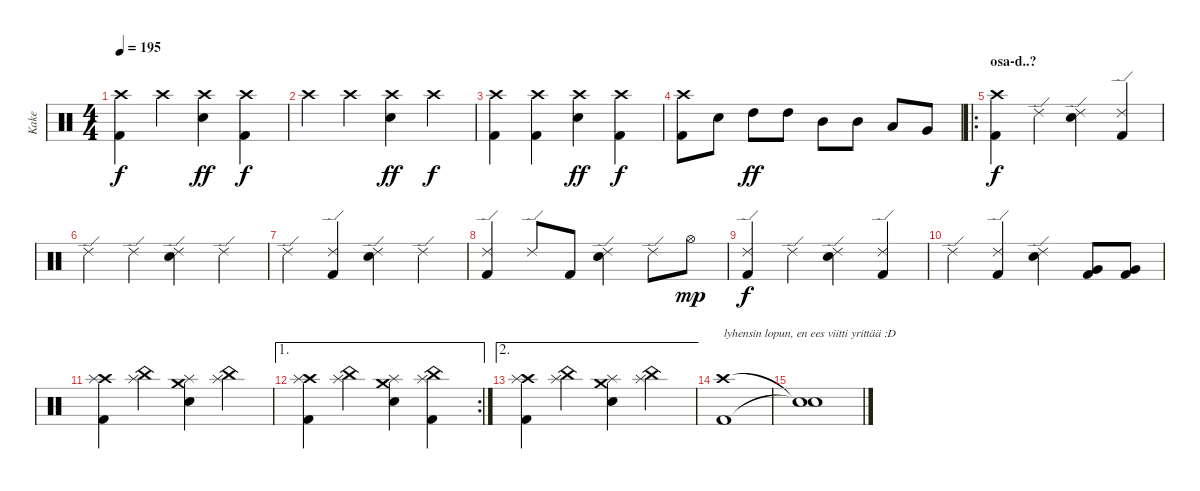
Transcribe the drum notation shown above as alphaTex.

\track ("Kake " "Kake ") {instrument percussion}
\staff {score}
\articulation defaults
\ts (4 4)
\tempo 195
\clef neutral
\ks c
("Crash high (hit)" "Kick (hit) 2").4{dy f} "Crash high (hit)".4 ("Crash high (hit)" "Electric Snare (hit)").4{dy ff} ("Crash high (hit)" "Kick (hit) 2").4{dy f} |
"Crash high (hit)".4 "Crash high (hit)".4 ("Crash high (hit)" "Electric Snare (hit)").4{dy ff} "Crash high (hit)".4{dy f} |
("Crash high (hit)" "Kick (hit) 2").4 ("Crash high (hit)" "Kick (hit) 2").4 ("Crash high (hit)" "Electric Snare (hit)").4{dy ff} ("Crash high (hit)" "Kick (hit) 2").4{dy f} |
("Crash high (hit)" "Kick (hit) 2").8 "Electric Snare (hit)".8 "High Tom (hit)".8{dy ff} "High Tom (hit)".8 "Mid Tom (hit)".8 "Mid Tom (hit)".8 "Low Tom (hit)".8 "Very Low Tom (hit)".8 |
\ro
\section ("" "osa-d..?")
("Crash high (hit)" "Kick (hit) 2").4{dy f} "Ride (edge) 2".4 ("Ride (edge) 2" "Electric Snare (hit)").4 ("Ride (edge) 2" "Kick (hit) 2").4 |
"Ride (edge) 2".4 "Ride (edge) 2".4 ("Ride (edge) 2" "Electric Snare (hit)").4 "Ride (edge) 2".4 |
"Ride (edge) 2".4 ("Ride (edge) 2" "Kick (hit) 2").4 ("Ride (edge) 2" "Electric Snare (hit)").4 "Ride (edge) 2".4 |
("Ride (edge) 2" "Kick (hit) 2").4 "Ride (edge) 2".8 "Kick (hit) 2".8 ("Ride (edge) 2" "Electric Snare (hit)").4 "Ride (edge) 2".8 "Hi-Hat (open)".8{dy mp} |
("Ride (edge) 2" "Kick (hit) 2").4{dy f} "Ride (edge) 2".4 ("Ride (edge) 2" "Electric Snare (hit)").4 ("Ride (edge) 2" "Kick (hit) 2").4 |
"Ride (edge) 2".4 ("Ride (edge) 2" "Kick (hit) 2").4 ("Ride (edge) 2" "Electric Snare (hit)").4 ("Very Low Tom (hit)" "Kick (hit) 2").8 ("Very Low Tom (hit)" "Kick (hit) 2").8 |
("Crash high (hit)" "Splash (hit)" "Kick (hit) 2").4 ("China (hit)" "Splash (hit)").4 ("Crash medium (hit)" "Splash (hit)" "Electric Snare (hit)").4 ("China (hit)" "Splash (hit)").4 |
\ae 1
\rc 2
("Crash high (hit)" "Splash (hit)" "Kick (hit) 2").4 ("China (hit)" "Splash (hit)").4 ("Crash medium (hit)" "Splash (hit)" "Electric Snare (hit)").4 ("China (hit)" "Splash (hit)" "Kick (hit) 2").4 |
\ae 2
("Crash high (hit)" "Splash (hit)" "Kick (hit) 2").4 ("China (hit)" "Splash (hit)").4 ("Crash medium (hit)" "Splash (hit)" "Electric Snare (hit)").4 ("China (hit)" "Splash (hit)").4 |
("Crash high (hit)" "Kick (hit) 2").1{txt "lyhensin lopun, en ees viitti yrittää :D"} |
("Snare (hit)"{t} "Snare (hit)"{t}).1
